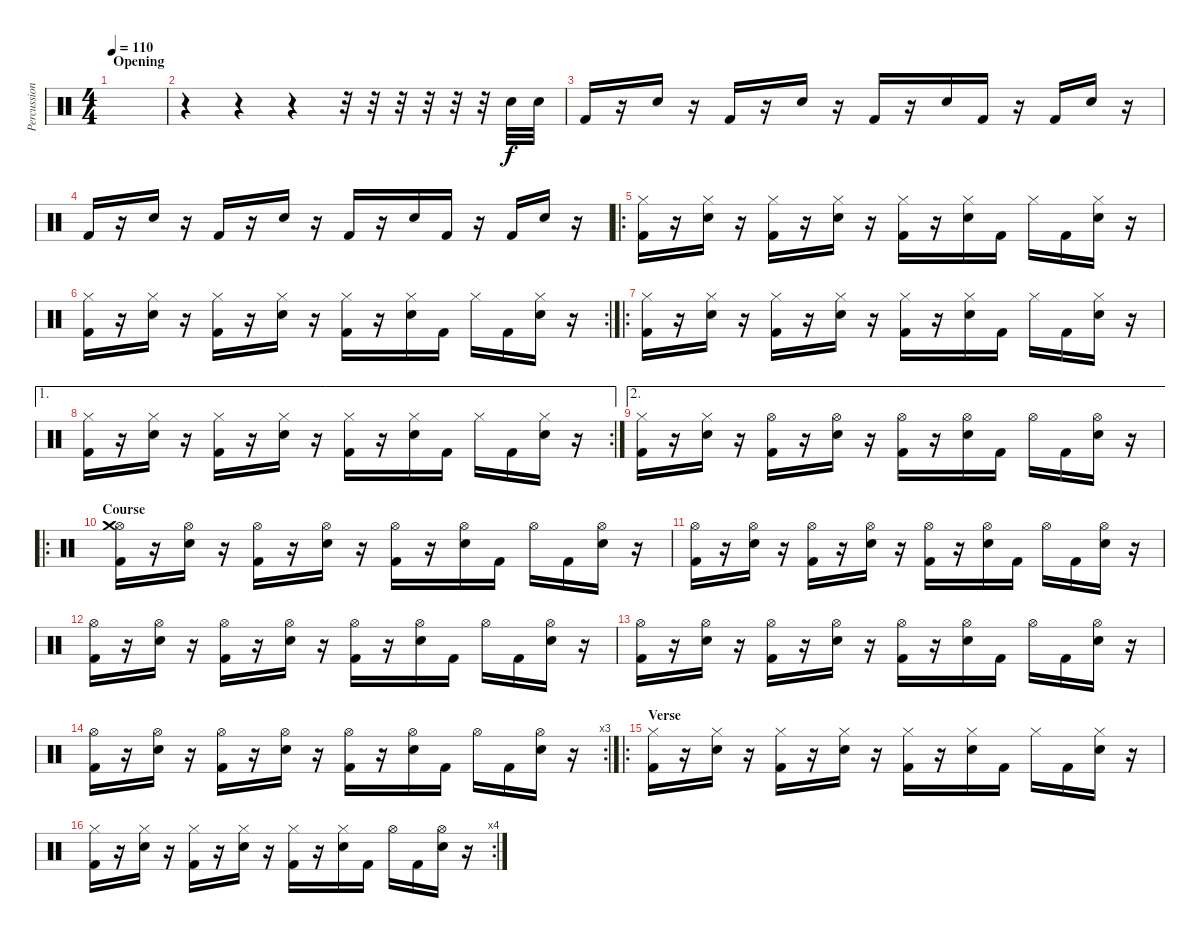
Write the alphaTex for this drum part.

\track ("Percussion" "Percussion") {instrument percussion}
\staff {score}
\articulation defaults
\ts (4 4)
\section ("" "Opening")
\tempo 110
\clef neutral
\ks c
|
r.4 r.4 r.4 r.32 r.32 r.32 r.32 r.32 r.32 "Snare (hit) 2".32 "Snare (hit) 2".32 |
"Kick (hit) 2".16 r.16 "Snare (hit) 2".16 r.16 "Kick (hit) 2".16 r.16 "Snare (hit) 2".16 r.16 "Kick (hit) 2".16 r.16 "Snare (hit) 2".16 "Kick (hit) 2".16 r.16 "Kick (hit) 2".16 "Snare (hit) 2".16 r.16 |
"Kick (hit) 2".16 r.16 "Snare (hit) 2".16 r.16 "Kick (hit) 2".16 r.16 "Snare (hit) 2".16 r.16 "Kick (hit) 2".16 r.16 "Snare (hit) 2".16 "Kick (hit) 2".16 r.16 "Kick (hit) 2".16 "Snare (hit) 2".16 r.16 |
\ro
("Kick (hit) 2" "Hi-Hat (closed)").16 r.16 ("Snare (hit) 2" "Hi-Hat (closed)").16 r.16 ("Kick (hit) 2" "Hi-Hat (closed)").16 r.16 ("Snare (hit) 2" "Hi-Hat (closed)").16 r.16 ("Kick (hit) 2" "Hi-Hat (closed)").16 r.16 ("Snare (hit) 2" "Hi-Hat (closed)").16 "Kick (hit) 2".16 "Hi-Hat (closed)".16 "Kick (hit) 2".16 ("Snare (hit) 2" "Hi-Hat (closed)").16 r.16 |
\rc 2
("Kick (hit) 2" "Hi-Hat (closed)").16 r.16 ("Snare (hit) 2" "Hi-Hat (closed)").16 r.16 ("Kick (hit) 2" "Hi-Hat (closed)").16 r.16 ("Snare (hit) 2" "Hi-Hat (closed)").16 r.16 ("Kick (hit) 2" "Hi-Hat (closed)").16 r.16 ("Snare (hit) 2" "Hi-Hat (closed)").16 "Kick (hit) 2".16 "Hi-Hat (closed)".16 "Kick (hit) 2".16 ("Snare (hit) 2" "Hi-Hat (closed)").16 r.16 |
\ro
("Kick (hit) 2" "Hi-Hat (closed)").16 r.16 ("Snare (hit) 2" "Hi-Hat (closed)").16 r.16 ("Kick (hit) 2" "Hi-Hat (closed)").16 r.16 ("Snare (hit) 2" "Hi-Hat (closed)").16 r.16 ("Kick (hit) 2" "Hi-Hat (closed)").16 r.16 ("Snare (hit) 2" "Hi-Hat (closed)").16 "Kick (hit) 2".16 "Hi-Hat (closed)".16 "Kick (hit) 2".16 ("Snare (hit) 2" "Hi-Hat (closed)").16 r.16 |
\ae 1
\rc 2
("Kick (hit) 2" "Hi-Hat (closed)").16 r.16 ("Snare (hit) 2" "Hi-Hat (closed)").16 r.16 ("Kick (hit) 2" "Hi-Hat (closed)").16 r.16 ("Snare (hit) 2" "Hi-Hat (closed)").16 r.16 ("Kick (hit) 2" "Hi-Hat (closed)").16 r.16 ("Snare (hit) 2" "Hi-Hat (closed)").16 "Kick (hit) 2".16 "Hi-Hat (closed)".16 "Kick (hit) 2".16 ("Snare (hit) 2" "Hi-Hat (closed)").16 r.16 |
\ae 2
("Kick (hit) 2" "Hi-Hat (closed)").16 r.16 ("Snare (hit) 2" "Hi-Hat (closed)").16 r.16 ("Kick (hit) 2" "Hi-Hat (open)").16 r.16 ("Snare (hit) 2" "Hi-Hat (open)").16 r.16 ("Kick (hit) 2" "Hi-Hat (open)").16 r.16 ("Snare (hit) 2" "Hi-Hat (open)").16 "Kick (hit) 2".16 "Hi-Hat (open)".16 "Kick (hit) 2".16 ("Snare (hit) 2" "Hi-Hat (open)").16 r.16 |
\ro
\section ("" "Course")
("Kick (hit) 2" "Hi-Hat (open)" "Crash medium (hit)").16 r.16 ("Snare (hit) 2" "Hi-Hat (open)").16 r.16 ("Kick (hit) 2" "Hi-Hat (open)").16 r.16 ("Snare (hit) 2" "Hi-Hat (open)").16 r.16 ("Kick (hit) 2" "Hi-Hat (open)").16 r.16 ("Snare (hit) 2" "Hi-Hat (open)").16 "Kick (hit) 2".16 "Hi-Hat (open)".16 "Kick (hit) 2".16 ("Snare (hit) 2" "Hi-Hat (open)").16 r.16 |
("Kick (hit) 2" "Hi-Hat (open)").16 r.16 ("Snare (hit) 2" "Hi-Hat (open)").16 r.16 ("Kick (hit) 2" "Hi-Hat (open)").16 r.16 ("Snare (hit) 2" "Hi-Hat (open)").16 r.16 ("Kick (hit) 2" "Hi-Hat (open)").16 r.16 ("Snare (hit) 2" "Hi-Hat (open)").16 "Kick (hit) 2".16 "Hi-Hat (open)".16 "Kick (hit) 2".16 ("Snare (hit) 2" "Hi-Hat (open)").16 r.16 |
("Kick (hit) 2" "Hi-Hat (open)").16 r.16 ("Snare (hit) 2" "Hi-Hat (open)").16 r.16 ("Kick (hit) 2" "Hi-Hat (open)").16 r.16 ("Snare (hit) 2" "Hi-Hat (open)").16 r.16 ("Kick (hit) 2" "Hi-Hat (open)").16 r.16 ("Snare (hit) 2" "Hi-Hat (open)").16 "Kick (hit) 2".16 "Hi-Hat (open)".16 "Kick (hit) 2".16 ("Snare (hit) 2" "Hi-Hat (open)").16 r.16 |
("Kick (hit) 2" "Hi-Hat (open)").16 r.16 ("Snare (hit) 2" "Hi-Hat (open)").16 r.16 ("Kick (hit) 2" "Hi-Hat (open)").16 r.16 ("Snare (hit) 2" "Hi-Hat (open)").16 r.16 ("Kick (hit) 2" "Hi-Hat (open)").16 r.16 ("Snare (hit) 2" "Hi-Hat (open)").16 "Kick (hit) 2".16 "Hi-Hat (open)".16 "Kick (hit) 2".16 ("Snare (hit) 2" "Hi-Hat (open)").16 r.16 |
\rc 3
("Kick (hit) 2" "Hi-Hat (open)").16 r.16 ("Snare (hit) 2" "Hi-Hat (open)").16 r.16 ("Kick (hit) 2" "Hi-Hat (open)").16 r.16 ("Snare (hit) 2" "Hi-Hat (open)").16 r.16 ("Kick (hit) 2" "Hi-Hat (open)").16 r.16 ("Snare (hit) 2" "Hi-Hat (open)").16 "Kick (hit) 2".16 "Hi-Hat (open)".16 "Kick (hit) 2".16 ("Snare (hit) 2" "Hi-Hat (open)").16 r.16 |
\ro
\section ("" "Verse")
("Kick (hit) 2" "Hi-Hat (closed)").16 r.16 ("Snare (hit) 2" "Hi-Hat (closed)").16 r.16 ("Kick (hit) 2" "Hi-Hat (closed)").16 r.16 ("Snare (hit) 2" "Hi-Hat (closed)").16 r.16 ("Kick (hit) 2" "Hi-Hat (closed)").16 r.16 ("Snare (hit) 2" "Hi-Hat (closed)").16 "Kick (hit) 2".16 "Hi-Hat (closed)".16 "Kick (hit) 2".16 ("Snare (hit) 2" "Hi-Hat (closed)").16 r.16 |
\rc 4
("Kick (hit) 2" "Hi-Hat (closed)").16 r.16 ("Snare (hit) 2" "Hi-Hat (closed)").16 r.16 ("Kick (hit) 2" "Hi-Hat (closed)").16 r.16 ("Snare (hit) 2" "Hi-Hat (closed)").16 r.16 ("Kick (hit) 2" "Hi-Hat (closed)").16 r.16 ("Snare (hit) 2" "Hi-Hat (closed)").16 "Kick (hit) 2".16 "Hi-Hat (open)".16 "Kick (hit) 2".16 ("Snare (hit) 2" "Hi-Hat (open)").16 r.16
